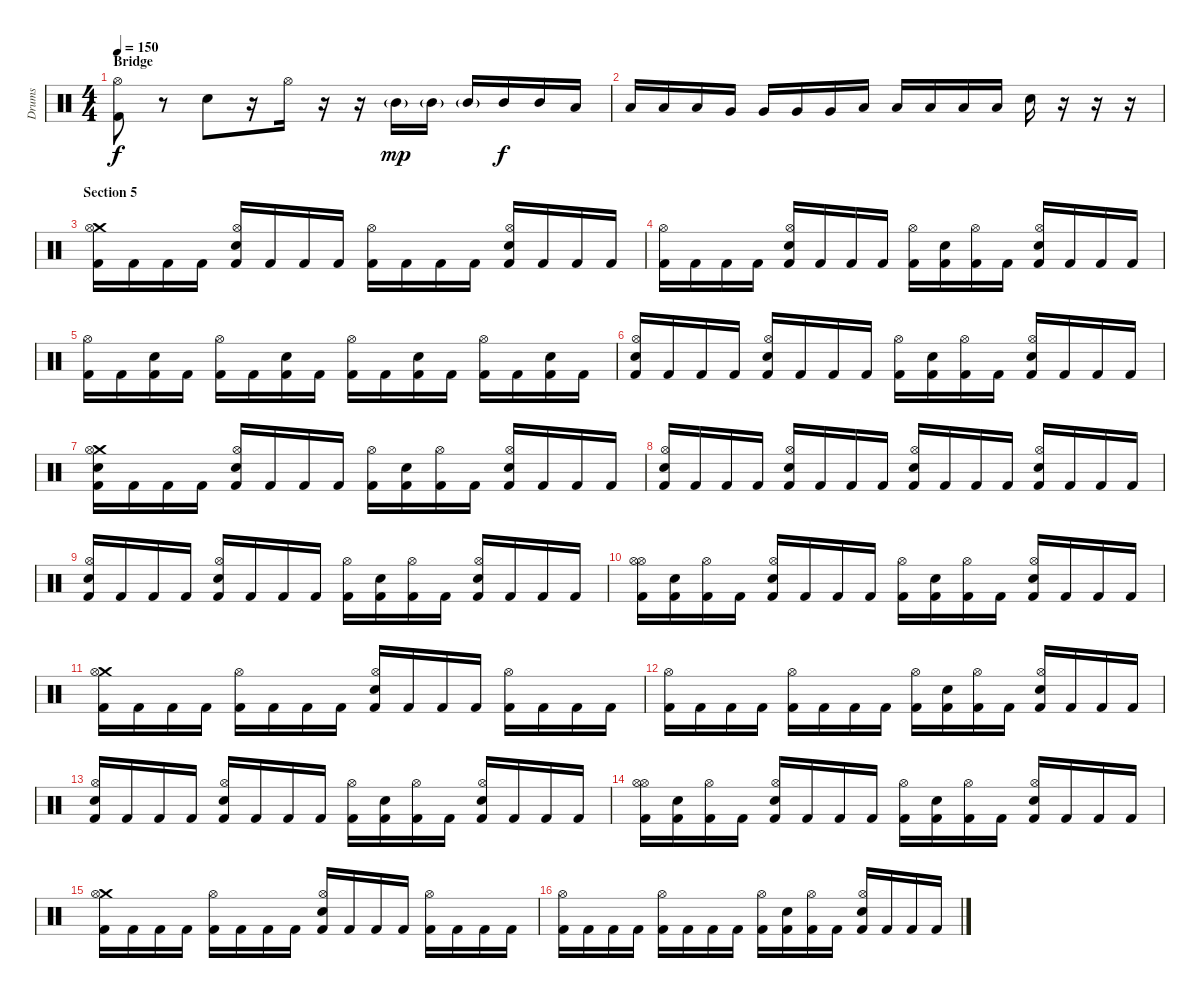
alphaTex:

\track ("Drums" "Drums") {instrument percussion}
\staff {score}
\articulation defaults
\ts (4 4)
\section ("" "Bridge")
\tempo 150
\clef neutral
\ks c
("Kick (hit) 2" "Hi-Hat (open)").8{dy f} r.8 "Electric Snare (hit)".8 r.16 "Hi-Hat (open)".16 r.16 r.16 "Mid Tom (hit)"{g}.16{dy mp} "Mid Tom (hit)"{g}.16 "Mid Tom (hit)"{g}.16 "Mid Tom (hit)".16{dy f} "Mid Tom (hit)".16 "Low Tom (hit)".16 |
"Low Tom (hit)".16 "Low Tom (hit)".16 "Low Tom (hit)".16 "Very Low Tom (hit)".16 "Very Low Tom (hit)".16 "Very Low Tom (hit)".16 "Very Low Tom (hit)".16 "Low Floor Tom (hit)".16 "Low Floor Tom (hit)".16 "Low Floor Tom (hit)".16 "Low Floor Tom (hit)".16 "Low Floor Tom (hit)".16 "Electric Snare (hit)".16 r.16 r.16 r.16 |
\section ("" "Section 5")
("Kick (hit) 2" "Crash medium (hit)" "Hi-Hat (open)").16 "Kick (hit) 2".16 "Kick (hit) 2".16 "Kick (hit) 2".16 ("Kick (hit) 2" "Electric Snare (hit)" "Hi-Hat (open)").16 "Kick (hit) 2".16 "Kick (hit) 2".16 "Kick (hit) 2".16 ("Kick (hit) 2" "Hi-Hat (open)").16 "Kick (hit) 2".16 "Kick (hit) 2".16 "Kick (hit) 2".16 ("Kick (hit) 2" "Electric Snare (hit)" "Hi-Hat (open)").16 "Kick (hit) 2".16 "Kick (hit) 2".16 "Kick (hit) 2".16 |
("Kick (hit) 2" "Hi-Hat (open)").16 "Kick (hit) 2".16 "Kick (hit) 2".16 "Kick (hit) 2".16 ("Kick (hit) 2" "Electric Snare (hit)" "Hi-Hat (open)").16 "Kick (hit) 2".16 "Kick (hit) 2".16 "Kick (hit) 2".16 ("Kick (hit) 2" "Hi-Hat (open)").16 ("Kick (hit) 2" "Electric Snare (hit)").16 ("Kick (hit) 2" "Hi-Hat (open)").16 "Kick (hit) 2".16 ("Kick (hit) 2" "Electric Snare (hit)" "Hi-Hat (open)").16 "Kick (hit) 2".16 "Kick (hit) 2".16 "Kick (hit) 2".16 |
("Kick (hit) 2" "Hi-Hat (open)").16 "Kick (hit) 2".16 ("Kick (hit) 2" "Electric Snare (hit)").16 "Kick (hit) 2".16 ("Kick (hit) 2" "Hi-Hat (open)").16 "Kick (hit) 2".16 ("Kick (hit) 2" "Electric Snare (hit)").16 "Kick (hit) 2".16 ("Kick (hit) 2" "Hi-Hat (open)").16 "Kick (hit) 2".16 ("Kick (hit) 2" "Electric Snare (hit)").16 "Kick (hit) 2".16 ("Kick (hit) 2" "Hi-Hat (open)").16 "Kick (hit) 2".16 ("Kick (hit) 2" "Electric Snare (hit)").16 "Kick (hit) 2".16 |
("Kick (hit) 2" "Electric Snare (hit)" "Hi-Hat (open)").16 "Kick (hit) 2".16 "Kick (hit) 2".16 "Kick (hit) 2".16 ("Kick (hit) 2" "Electric Snare (hit)" "Hi-Hat (open)").16 "Kick (hit) 2".16 "Kick (hit) 2".16 "Kick (hit) 2".16 ("Kick (hit) 2" "Hi-Hat (open)").16 ("Kick (hit) 2" "Electric Snare (hit)").16 ("Kick (hit) 2" "Hi-Hat (open)").16 "Kick (hit) 2".16 ("Kick (hit) 2" "Electric Snare (hit)" "Hi-Hat (open)").16 "Kick (hit) 2".16 "Kick (hit) 2".16 "Kick (hit) 2".16 |
("Kick (hit) 2" "Electric Snare (hit)" "Crash medium (hit)" "Hi-Hat (open)").16 "Kick (hit) 2".16 "Kick (hit) 2".16 "Kick (hit) 2".16 ("Kick (hit) 2" "Electric Snare (hit)" "Hi-Hat (open)").16 "Kick (hit) 2".16 "Kick (hit) 2".16 "Kick (hit) 2".16 ("Kick (hit) 2" "Hi-Hat (open)").16 ("Kick (hit) 2" "Electric Snare (hit)").16 ("Kick (hit) 2" "Hi-Hat (open)").16 "Kick (hit) 2".16 ("Kick (hit) 2" "Electric Snare (hit)" "Hi-Hat (open)").16 "Kick (hit) 2".16 "Kick (hit) 2".16 "Kick (hit) 2".16 |
("Kick (hit) 2" "Electric Snare (hit)" "Hi-Hat (open)").16 "Kick (hit) 2".16 "Kick (hit) 2".16 "Kick (hit) 2".16 ("Kick (hit) 2" "Electric Snare (hit)" "Hi-Hat (open)").16 "Kick (hit) 2".16 "Kick (hit) 2".16 "Kick (hit) 2".16 ("Kick (hit) 2" "Electric Snare (hit)" "Hi-Hat (open)").16 "Kick (hit) 2".16 "Kick (hit) 2".16 "Kick (hit) 2".16 ("Kick (hit) 2" "Electric Snare (hit)" "Hi-Hat (open)").16 "Kick (hit) 2".16 "Kick (hit) 2".16 "Kick (hit) 2".16 |
("Kick (hit) 2" "Electric Snare (hit)" "Hi-Hat (open)").16 "Kick (hit) 2".16 "Kick (hit) 2".16 "Kick (hit) 2".16 ("Kick (hit) 2" "Electric Snare (hit)" "Hi-Hat (open)").16 "Kick (hit) 2".16 "Kick (hit) 2".16 "Kick (hit) 2".16 ("Kick (hit) 2" "Hi-Hat (open)").16 ("Kick (hit) 2" "Electric Snare (hit)").16 ("Kick (hit) 2" "Hi-Hat (open)").16 "Kick (hit) 2".16 ("Kick (hit) 2" "Electric Snare (hit)" "Hi-Hat (open)").16 "Kick (hit) 2".16 "Kick (hit) 2".16 "Kick (hit) 2".16 |
("Kick (hit) 2" "Hi-Hat (open)" "Hi-Hat (open)").16 ("Kick (hit) 2" "Electric Snare (hit)").16 ("Kick (hit) 2" "Hi-Hat (open)").16 "Kick (hit) 2".16 ("Kick (hit) 2" "Electric Snare (hit)" "Hi-Hat (open)").16 "Kick (hit) 2".16 "Kick (hit) 2".16 "Kick (hit) 2".16 ("Kick (hit) 2" "Hi-Hat (open)").16 ("Kick (hit) 2" "Electric Snare (hit)").16 ("Kick (hit) 2" "Hi-Hat (open)").16 "Kick (hit) 2".16 ("Kick (hit) 2" "Electric Snare (hit)" "Hi-Hat (open)").16 "Kick (hit) 2".16 "Kick (hit) 2".16 "Kick (hit) 2".16 |
("Kick (hit) 2" "Crash medium (hit)" "Hi-Hat (open)").16 "Kick (hit) 2".16 "Kick (hit) 2".16 "Kick (hit) 2".16 ("Kick (hit) 2" "Hi-Hat (open)").16 "Kick (hit) 2".16 "Kick (hit) 2".16 "Kick (hit) 2".16 ("Kick (hit) 2" "Electric Snare (hit)" "Hi-Hat (open)").16 "Kick (hit) 2".16 "Kick (hit) 2".16 "Kick (hit) 2".16 ("Kick (hit) 2" "Hi-Hat (open)").16 "Kick (hit) 2".16 "Kick (hit) 2".16 "Kick (hit) 2".16 |
("Kick (hit) 2" "Hi-Hat (open)").16 "Kick (hit) 2".16 "Kick (hit) 2".16 "Kick (hit) 2".16 ("Kick (hit) 2" "Hi-Hat (open)").16 "Kick (hit) 2".16 "Kick (hit) 2".16 "Kick (hit) 2".16 ("Kick (hit) 2" "Hi-Hat (open)").16 ("Kick (hit) 2" "Electric Snare (hit)").16 ("Kick (hit) 2" "Hi-Hat (open)").16 "Kick (hit) 2".16 ("Kick (hit) 2" "Electric Snare (hit)" "Hi-Hat (open)").16 "Kick (hit) 2".16 "Kick (hit) 2".16 "Kick (hit) 2".16 |
("Kick (hit) 2" "Electric Snare (hit)" "Hi-Hat (open)").16 "Kick (hit) 2".16 "Kick (hit) 2".16 "Kick (hit) 2".16 ("Kick (hit) 2" "Electric Snare (hit)" "Hi-Hat (open)").16 "Kick (hit) 2".16 "Kick (hit) 2".16 "Kick (hit) 2".16 ("Kick (hit) 2" "Hi-Hat (open)").16 ("Kick (hit) 2" "Electric Snare (hit)").16 ("Kick (hit) 2" "Hi-Hat (open)").16 "Kick (hit) 2".16 ("Kick (hit) 2" "Electric Snare (hit)" "Hi-Hat (open)").16 "Kick (hit) 2".16 "Kick (hit) 2".16 "Kick (hit) 2".16 |
("Kick (hit) 2" "Hi-Hat (open)" "Hi-Hat (open)").16 ("Kick (hit) 2" "Electric Snare (hit)").16 ("Kick (hit) 2" "Hi-Hat (open)").16 "Kick (hit) 2".16 ("Kick (hit) 2" "Electric Snare (hit)" "Hi-Hat (open)").16 "Kick (hit) 2".16 "Kick (hit) 2".16 "Kick (hit) 2".16 ("Kick (hit) 2" "Hi-Hat (open)").16 ("Kick (hit) 2" "Electric Snare (hit)").16 ("Kick (hit) 2" "Hi-Hat (open)").16 "Kick (hit) 2".16 ("Kick (hit) 2" "Electric Snare (hit)" "Hi-Hat (open)").16 "Kick (hit) 2".16 "Kick (hit) 2".16 "Kick (hit) 2".16 |
("Kick (hit) 2" "Crash medium (hit)" "Hi-Hat (open)").16 "Kick (hit) 2".16 "Kick (hit) 2".16 "Kick (hit) 2".16 ("Kick (hit) 2" "Hi-Hat (open)").16 "Kick (hit) 2".16 "Kick (hit) 2".16 "Kick (hit) 2".16 ("Kick (hit) 2" "Electric Snare (hit)" "Hi-Hat (open)").16 "Kick (hit) 2".16 "Kick (hit) 2".16 "Kick (hit) 2".16 ("Kick (hit) 2" "Hi-Hat (open)").16 "Kick (hit) 2".16 "Kick (hit) 2".16 "Kick (hit) 2".16 |
("Kick (hit) 2" "Hi-Hat (open)").16 "Kick (hit) 2".16 "Kick (hit) 2".16 "Kick (hit) 2".16 ("Kick (hit) 2" "Hi-Hat (open)").16 "Kick (hit) 2".16 "Kick (hit) 2".16 "Kick (hit) 2".16 ("Kick (hit) 2" "Hi-Hat (open)").16 ("Kick (hit) 2" "Electric Snare (hit)").16 ("Kick (hit) 2" "Hi-Hat (open)").16 "Kick (hit) 2".16 ("Kick (hit) 2" "Electric Snare (hit)" "Hi-Hat (open)").16 "Kick (hit) 2".16 "Kick (hit) 2".16 "Kick (hit) 2".16
